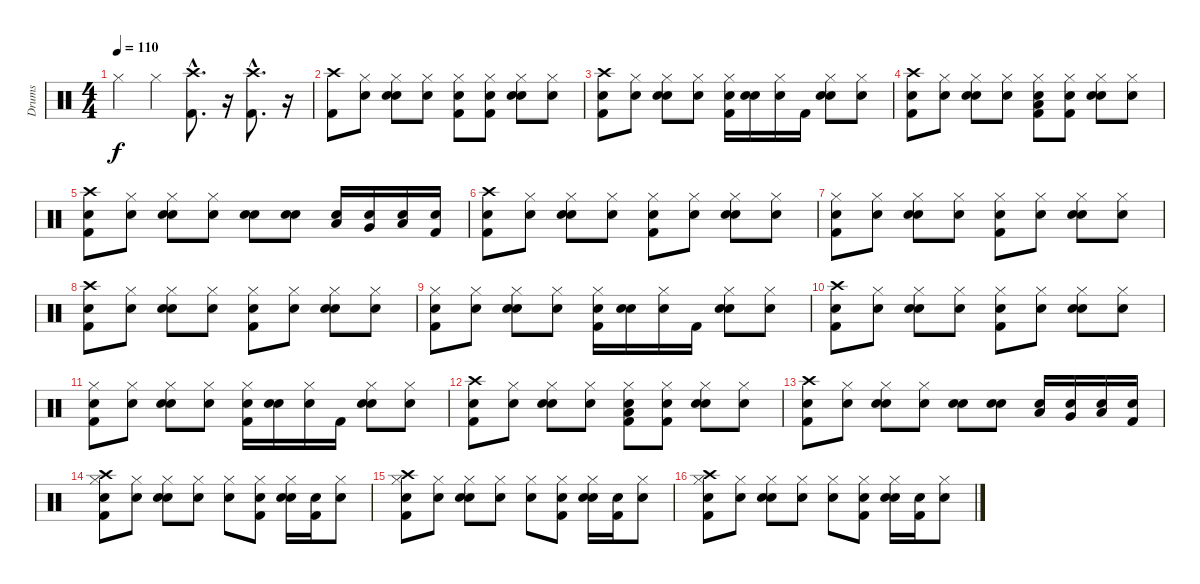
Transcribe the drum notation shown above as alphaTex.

\track ("Drums" "Drums") {instrument percussion}
\staff {score}
\articulation defaults
\ts (4 4)
\tempo 110
\clef neutral
\ks c "Hi-Hat (closed)".4{dy f} "Hi-Hat (closed)".4
("Kick (hit) 2"{hac} "Crash high (hit)"{hac}).8{d} r.16 ("Kick (hit) 2"{hac} "Crash high (hit)"{hac}).8{d} r.16 |
("Kick (hit) 2" "Crash high (hit)").8 ("Snare (hit)" "Hi-Hat (closed)").8 ("Snare (hit)" "Snare (hit) 2" "Hi-Hat (closed)").8 ("Snare (hit)" "Hi-Hat (closed)").8 ("Snare (hit)" "Kick (hit) 2" "Hi-Hat (closed)").8 ("Snare (hit)" "Kick (hit) 2" "Hi-Hat (closed)").8 ("Snare (hit)" "Snare (hit) 2" "Hi-Hat (closed)").8 ("Snare (hit)" "Hi-Hat (closed)").8 |
("Snare (hit)" "Kick (hit) 2" "Crash high (hit)").8 ("Snare (hit)" "Hi-Hat (closed)").8 ("Snare (hit)" "Snare (hit) 2" "Hi-Hat (closed)").8 ("Snare (hit)" "Hi-Hat (closed)").8 ("Snare (hit)" "Kick (hit) 2" "Hi-Hat (closed)").16 ("Snare (hit)" "Snare (hit) 2").16 ("Snare (hit)" "Hi-Hat (closed)").16 "Kick (hit) 2".16 ("Snare (hit)" "Snare (hit) 2" "Hi-Hat (closed)").8 ("Snare (hit)" "Hi-Hat (closed)").8 |
("Snare (hit)" "Kick (hit) 2" "Crash high (hit)").8 ("Snare (hit)" "Hi-Hat (closed)").8 ("Snare (hit)" "Snare (hit) 2" "Hi-Hat (closed)").8 ("Snare (hit)" "Hi-Hat (closed)").8 ("Snare (hit)" "Kick (hit) 2" "Hi-Hat (closed)" "Low Tom (hit)").8 ("Snare (hit)" "Kick (hit) 2" "Hi-Hat (closed)").8 ("Snare (hit)" "Snare (hit) 2" "Hi-Hat (closed)").8 ("Snare (hit)" "Hi-Hat (closed)").8 |
("Snare (hit)" "Kick (hit) 2" "Crash high (hit)").8 ("Snare (hit)" "Hi-Hat (closed)").8 ("Snare (hit)" "Snare (hit) 2" "Hi-Hat (closed)").8 ("Snare (hit)" "Hi-Hat (closed)").8 ("Snare (hit)" "Snare (hit) 2").8 ("Snare (hit)" "Snare (hit) 2").8 ("Snare (hit)" "Low Tom (hit)").16 ("Snare (hit)" "Very Low Tom (hit)").16 ("Snare (hit)" "Low Floor Tom (hit)").16 ("Snare (hit)" "Kick (hit) 2").16 |
("Snare (hit)" "Kick (hit) 2" "Crash high (hit)").8 ("Snare (hit)" "Hi-Hat (closed)").8 ("Snare (hit)" "Snare (hit) 2" "Hi-Hat (closed)").8 ("Snare (hit)" "Hi-Hat (closed)").8 ("Snare (hit)" "Kick (hit) 2" "Hi-Hat (closed)").8 ("Snare (hit)" "Hi-Hat (closed)").8 ("Snare (hit)" "Snare (hit) 2" "Hi-Hat (closed)").8 ("Snare (hit)" "Hi-Hat (closed)").8 |
("Snare (hit)" "Kick (hit) 2" "Hi-Hat (closed)").8 ("Snare (hit)" "Hi-Hat (closed)").8 ("Snare (hit)" "Snare (hit) 2" "Hi-Hat (closed)").8 ("Snare (hit)" "Hi-Hat (closed)").8 ("Snare (hit)" "Kick (hit) 2" "Hi-Hat (closed)").8 ("Snare (hit)" "Hi-Hat (closed)").8 ("Snare (hit)" "Snare (hit) 2" "Hi-Hat (closed)").8 ("Snare (hit)" "Hi-Hat (closed)").8 |
("Snare (hit)" "Kick (hit) 2" "Crash high (hit)").8 ("Snare (hit)" "Hi-Hat (closed)").8 ("Snare (hit)" "Snare (hit) 2" "Hi-Hat (closed)").8 ("Snare (hit)" "Hi-Hat (closed)").8 ("Snare (hit)" "Kick (hit) 2" "Hi-Hat (closed)").8 ("Snare (hit)" "Hi-Hat (closed)").8 ("Snare (hit)" "Snare (hit) 2" "Hi-Hat (closed)").8 ("Snare (hit)" "Hi-Hat (closed)").8 |
("Snare (hit)" "Kick (hit) 2" "Hi-Hat (closed)").8 ("Snare (hit)" "Hi-Hat (closed)").8 ("Snare (hit)" "Snare (hit) 2" "Hi-Hat (closed)").8 ("Snare (hit)" "Hi-Hat (closed)").8 ("Snare (hit)" "Kick (hit) 2" "Hi-Hat (closed)").16 ("Snare (hit)" "Snare (hit) 2").16 ("Snare (hit)" "Hi-Hat (closed)").16 "Kick (hit) 2".16 ("Snare (hit)" "Snare (hit) 2" "Hi-Hat (closed)").8 ("Snare (hit)" "Hi-Hat (closed)").8 |
("Snare (hit)" "Kick (hit) 2" "Crash high (hit)").8 ("Snare (hit)" "Hi-Hat (closed)").8 ("Snare (hit)" "Snare (hit) 2" "Hi-Hat (closed)").8 ("Snare (hit)" "Hi-Hat (closed)").8 ("Snare (hit)" "Kick (hit) 2" "Hi-Hat (closed)").8 ("Snare (hit)" "Hi-Hat (closed)").8 ("Snare (hit)" "Snare (hit) 2" "Hi-Hat (closed)").8 ("Snare (hit)" "Hi-Hat (closed)").8 |
("Snare (hit)" "Kick (hit) 2" "Hi-Hat (closed)").8 ("Snare (hit)" "Hi-Hat (closed)").8 ("Snare (hit)" "Snare (hit) 2" "Hi-Hat (closed)").8 ("Snare (hit)" "Hi-Hat (closed)").8 ("Snare (hit)" "Kick (hit) 2" "Hi-Hat (closed)").16 ("Snare (hit)" "Snare (hit) 2").16 ("Snare (hit)" "Hi-Hat (closed)").16 "Kick (hit) 2".16 ("Snare (hit)" "Snare (hit) 2" "Hi-Hat (closed)").8 ("Snare (hit)" "Hi-Hat (closed)").8 |
("Snare (hit)" "Kick (hit) 2" "Crash high (hit)").8 ("Snare (hit)" "Hi-Hat (closed)").8 ("Snare (hit)" "Snare (hit) 2" "Hi-Hat (closed)").8 ("Snare (hit)" "Hi-Hat (closed)").8 ("Snare (hit)" "Kick (hit) 2" "Hi-Hat (closed)" "Low Tom (hit)").8 ("Snare (hit)" "Kick (hit) 2" "Hi-Hat (closed)").8 ("Snare (hit)" "Snare (hit) 2" "Hi-Hat (closed)").8 ("Snare (hit)" "Hi-Hat (closed)").8 |
("Snare (hit)" "Kick (hit) 2" "Crash high (hit)").8 ("Snare (hit)" "Hi-Hat (closed)").8 ("Snare (hit)" "Snare (hit) 2" "Hi-Hat (closed)").8 ("Snare (hit)" "Hi-Hat (closed)").8 ("Snare (hit)" "Snare (hit) 2").8 ("Snare (hit)" "Snare (hit) 2").8 ("Snare (hit)" "Low Tom (hit)").16 ("Snare (hit)" "Very Low Tom (hit)").16 ("Snare (hit)" "Low Floor Tom (hit)").16 ("Snare (hit)" "Kick (hit) 2").16 |
("Snare (hit)" "Kick (hit) 2" "Hi-Hat (closed)" "Crash high (hit)").8 ("Snare (hit)" "Hi-Hat (closed)").8 ("Snare (hit)" "Snare (hit) 2" "Hi-Hat (closed)").8 ("Snare (hit)" "Hi-Hat (closed)").8 ("Snare (hit)" "Hi-Hat (closed)").8 ("Snare (hit)" "Kick (hit) 2" "Hi-Hat (closed)").8 ("Snare (hit)" "Snare (hit) 2" "Hi-Hat (closed)").16 ("Snare (hit)" "Kick (hit) 2").16 ("Snare (hit)" "Hi-Hat (closed)").8 |
("Snare (hit)" "Kick (hit) 2" "Hi-Hat (closed)" "Crash high (hit)").8 ("Snare (hit)" "Hi-Hat (closed)").8 ("Snare (hit)" "Snare (hit) 2" "Hi-Hat (closed)").8 ("Snare (hit)" "Hi-Hat (closed)").8 ("Snare (hit)" "Hi-Hat (closed)").8 ("Snare (hit)" "Kick (hit) 2" "Hi-Hat (closed)").8 ("Snare (hit)" "Snare (hit) 2" "Hi-Hat (closed)").16 ("Snare (hit)" "Kick (hit) 2").16 ("Snare (hit)" "Hi-Hat (closed)").8 |
("Snare (hit)" "Kick (hit) 2" "Hi-Hat (closed)" "Crash high (hit)").8 ("Snare (hit)" "Hi-Hat (closed)").8 ("Snare (hit)" "Snare (hit) 2" "Hi-Hat (closed)").8 ("Snare (hit)" "Hi-Hat (closed)").8 ("Snare (hit)" "Hi-Hat (closed)").8 ("Snare (hit)" "Kick (hit) 2" "Hi-Hat (closed)").8 ("Snare (hit)" "Snare (hit) 2" "Hi-Hat (closed)").16 ("Snare (hit)" "Kick (hit) 2").16 ("Snare (hit)" "Hi-Hat (closed)").8
